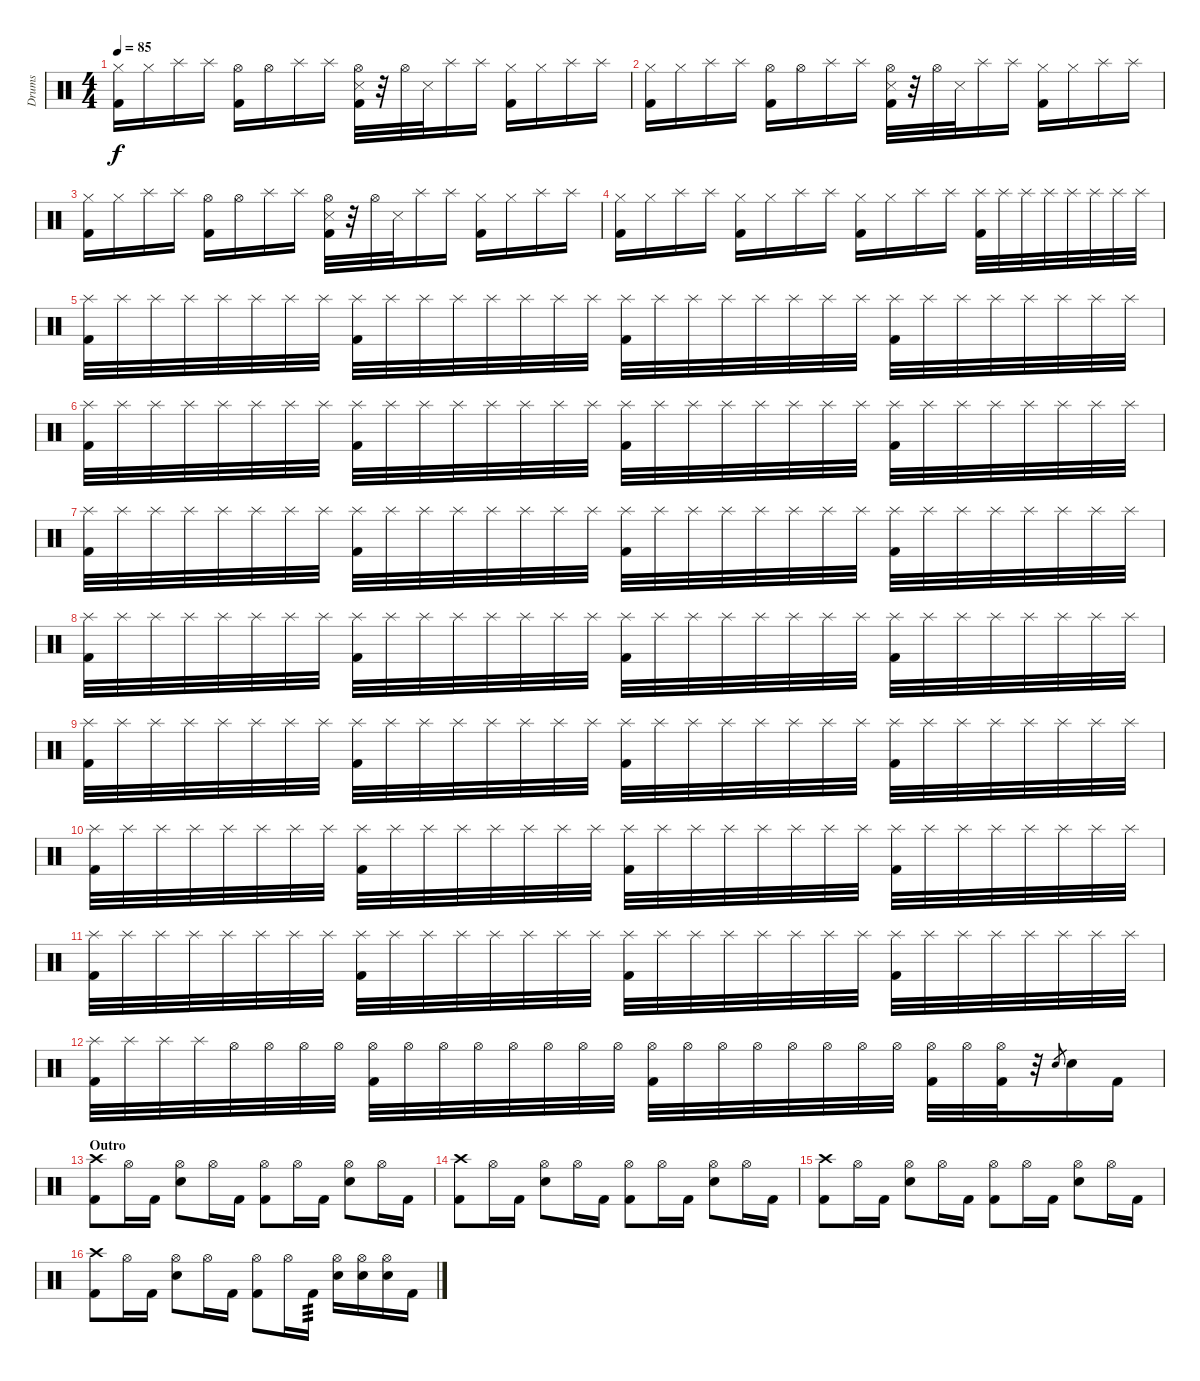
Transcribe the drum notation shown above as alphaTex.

\track ("Drums" "Drums") {instrument percussion}
\staff {score}
\articulation defaults
\ts (4 4)
\tempo 85
\clef neutral
\ks c
("Hi-Hat (closed)" "Kick (hit) 2").16{dy f} "Hi-Hat (closed)".16 "Splash (hit)".16 "Splash (hit)".16 ("Hi-Hat (open)" "Kick (hit) 2").16 "Hi-Hat (open)".16 "Splash (hit)".16 "Splash (hit)".16 ("Hi-Hat (open)" "Snare (side stick) 3" "Kick (hit) 2").32 r.32 "Hi-Hat (open)".32 "Snare (side stick) 3".32 "Splash (hit)".16 "Splash (hit)".16 ("Hi-Hat (closed)" "Kick (hit) 2").16 "Hi-Hat (closed)".16 "Splash (hit)".16 "Splash (hit)".16 |
("Hi-Hat (closed)" "Kick (hit) 2").16 "Hi-Hat (closed)".16 "Splash (hit)".16 "Splash (hit)".16 ("Hi-Hat (open)" "Kick (hit) 2").16 "Hi-Hat (open)".16 "Splash (hit)".16 "Splash (hit)".16 ("Hi-Hat (open)" "Snare (side stick) 3" "Kick (hit) 2").32 r.32 "Hi-Hat (open)".32 "Snare (side stick) 3".32 "Splash (hit)".16 "Splash (hit)".16 ("Hi-Hat (closed)" "Kick (hit) 2").16 "Hi-Hat (closed)".16 "Splash (hit)".16 "Splash (hit)".16 |
("Hi-Hat (closed)" "Kick (hit) 2").16 "Hi-Hat (closed)".16 "Splash (hit)".16 "Splash (hit)".16 ("Hi-Hat (open)" "Kick (hit) 2").16 "Hi-Hat (open)".16 "Splash (hit)".16 "Splash (hit)".16 ("Hi-Hat (open)" "Snare (side stick) 3" "Kick (hit) 2").32 r.32 "Hi-Hat (open)".32 "Snare (side stick) 3".32 "Splash (hit)".16 "Splash (hit)".16 ("Hi-Hat (closed)" "Kick (hit) 2").16 "Hi-Hat (closed)".16 "Splash (hit)".16 "Splash (hit)".16 |
("Hi-Hat (closed)" "Kick (hit) 2").16 "Hi-Hat (closed)".16 "Splash (hit)".16 "Splash (hit)".16 ("Hi-Hat (closed)" "Kick (hit) 2").16 "Hi-Hat (closed)".16 "Splash (hit)".16 "Splash (hit)".16 ("Hi-Hat (closed)" "Kick (hit) 2").16 "Hi-Hat (closed)".16 "Splash (hit)".16 "Splash (hit)".16 ("Splash (hit)" "Kick (hit) 2").32 "Splash (hit)".32 "Splash (hit)".32 "Splash (hit)".32 "Splash (hit)".32 "Splash (hit)".32 "Splash (hit)".32 "Splash (hit)".32 |
("Splash (hit)" "Kick (hit) 2").32 "Splash (hit)".32 "Splash (hit)".32 "Splash (hit)".32 "Splash (hit)".32 "Splash (hit)".32 "Splash (hit)".32 "Splash (hit)".32 ("Splash (hit)" "Kick (hit) 2").32 "Splash (hit)".32 "Splash (hit)".32 "Splash (hit)".32 "Splash (hit)".32 "Splash (hit)".32 "Splash (hit)".32 "Splash (hit)".32 ("Splash (hit)" "Kick (hit) 2").32 "Splash (hit)".32 "Splash (hit)".32 "Splash (hit)".32 "Splash (hit)".32 "Splash (hit)".32 "Splash (hit)".32 "Splash (hit)".32 ("Splash (hit)" "Kick (hit) 2").32 "Splash (hit)".32 "Splash (hit)".32 "Splash (hit)".32 "Splash (hit)".32 "Splash (hit)".32 "Splash (hit)".32 "Splash (hit)".32 |
("Splash (hit)" "Kick (hit) 2").32 "Splash (hit)".32 "Splash (hit)".32 "Splash (hit)".32 "Splash (hit)".32 "Splash (hit)".32 "Splash (hit)".32 "Splash (hit)".32 ("Splash (hit)" "Kick (hit) 2").32 "Splash (hit)".32 "Splash (hit)".32 "Splash (hit)".32 "Splash (hit)".32 "Splash (hit)".32 "Splash (hit)".32 "Splash (hit)".32 ("Splash (hit)" "Kick (hit) 2").32 "Splash (hit)".32 "Splash (hit)".32 "Splash (hit)".32 "Splash (hit)".32 "Splash (hit)".32 "Splash (hit)".32 "Splash (hit)".32 ("Splash (hit)" "Kick (hit) 2").32 "Splash (hit)".32 "Splash (hit)".32 "Splash (hit)".32 "Splash (hit)".32 "Splash (hit)".32 "Splash (hit)".32 "Splash (hit)".32 |
("Splash (hit)" "Kick (hit) 2").32 "Splash (hit)".32 "Splash (hit)".32 "Splash (hit)".32 "Splash (hit)".32 "Splash (hit)".32 "Splash (hit)".32 "Splash (hit)".32 ("Splash (hit)" "Kick (hit) 2").32 "Splash (hit)".32 "Splash (hit)".32 "Splash (hit)".32 "Splash (hit)".32 "Splash (hit)".32 "Splash (hit)".32 "Splash (hit)".32 ("Splash (hit)" "Kick (hit) 2").32 "Splash (hit)".32 "Splash (hit)".32 "Splash (hit)".32 "Splash (hit)".32 "Splash (hit)".32 "Splash (hit)".32 "Splash (hit)".32 ("Splash (hit)" "Kick (hit) 2").32 "Splash (hit)".32 "Splash (hit)".32 "Splash (hit)".32 "Splash (hit)".32 "Splash (hit)".32 "Splash (hit)".32 "Splash (hit)".32 |
("Splash (hit)" "Kick (hit) 2").32 "Splash (hit)".32 "Splash (hit)".32 "Splash (hit)".32 "Splash (hit)".32 "Splash (hit)".32 "Splash (hit)".32 "Splash (hit)".32 ("Splash (hit)" "Kick (hit) 2").32 "Splash (hit)".32 "Splash (hit)".32 "Splash (hit)".32 "Splash (hit)".32 "Splash (hit)".32 "Splash (hit)".32 "Splash (hit)".32 ("Splash (hit)" "Kick (hit) 2").32 "Splash (hit)".32 "Splash (hit)".32 "Splash (hit)".32 "Splash (hit)".32 "Splash (hit)".32 "Splash (hit)".32 "Splash (hit)".32 ("Splash (hit)" "Kick (hit) 2").32 "Splash (hit)".32 "Splash (hit)".32 "Splash (hit)".32 "Splash (hit)".32 "Splash (hit)".32 "Splash (hit)".32 "Splash (hit)".32 |
("Splash (hit)" "Kick (hit) 2").32 "Splash (hit)".32 "Splash (hit)".32 "Splash (hit)".32 "Splash (hit)".32 "Splash (hit)".32 "Splash (hit)".32 "Splash (hit)".32 ("Splash (hit)" "Kick (hit) 2").32 "Splash (hit)".32 "Splash (hit)".32 "Splash (hit)".32 "Splash (hit)".32 "Splash (hit)".32 "Splash (hit)".32 "Splash (hit)".32 ("Splash (hit)" "Kick (hit) 2").32 "Splash (hit)".32 "Splash (hit)".32 "Splash (hit)".32 "Splash (hit)".32 "Splash (hit)".32 "Splash (hit)".32 "Splash (hit)".32 ("Splash (hit)" "Kick (hit) 2").32 "Splash (hit)".32 "Splash (hit)".32 "Splash (hit)".32 "Splash (hit)".32 "Splash (hit)".32 "Splash (hit)".32 "Splash (hit)".32 |
("Splash (hit)" "Kick (hit) 2").32 "Splash (hit)".32 "Splash (hit)".32 "Splash (hit)".32 "Splash (hit)".32 "Splash (hit)".32 "Splash (hit)".32 "Splash (hit)".32 ("Splash (hit)" "Kick (hit) 2").32 "Splash (hit)".32 "Splash (hit)".32 "Splash (hit)".32 "Splash (hit)".32 "Splash (hit)".32 "Splash (hit)".32 "Splash (hit)".32 ("Splash (hit)" "Kick (hit) 2").32 "Splash (hit)".32 "Splash (hit)".32 "Splash (hit)".32 "Splash (hit)".32 "Splash (hit)".32 "Splash (hit)".32 "Splash (hit)".32 ("Splash (hit)" "Kick (hit) 2").32 "Splash (hit)".32 "Splash (hit)".32 "Splash (hit)".32 "Splash (hit)".32 "Splash (hit)".32 "Splash (hit)".32 "Splash (hit)".32 |
("Splash (hit)" "Kick (hit) 2").32 "Splash (hit)".32 "Splash (hit)".32 "Splash (hit)".32 "Splash (hit)".32 "Splash (hit)".32 "Splash (hit)".32 "Splash (hit)".32 ("Splash (hit)" "Kick (hit) 2").32 "Splash (hit)".32 "Splash (hit)".32 "Splash (hit)".32 "Splash (hit)".32 "Splash (hit)".32 "Splash (hit)".32 "Splash (hit)".32 ("Splash (hit)" "Kick (hit) 2").32 "Splash (hit)".32 "Splash (hit)".32 "Splash (hit)".32 "Splash (hit)".32 "Splash (hit)".32 "Splash (hit)".32 "Splash (hit)".32 ("Splash (hit)" "Kick (hit) 2").32 "Splash (hit)".32 "Splash (hit)".32 "Splash (hit)".32 "Splash (hit)".32 "Splash (hit)".32 "Splash (hit)".32 "Splash (hit)".32 |
("Splash (hit)" "Kick (hit) 2").32 "Splash (hit)".32 "Splash (hit)".32 "Splash (hit)".32 "Hi-Hat (open)".32 "Hi-Hat (open)".32 "Hi-Hat (open)".32 "Hi-Hat (open)".32 ("Hi-Hat (open)" "Kick (hit) 2").32 "Hi-Hat (open)".32 "Hi-Hat (open)".32 "Hi-Hat (open)".32 "Hi-Hat (open)".32 "Hi-Hat (open)".32 "Hi-Hat (open)".32 "Hi-Hat (open)".32 ("Hi-Hat (open)" "Kick (hit) 2").32 "Hi-Hat (open)".32 "Hi-Hat (open)".32 "Hi-Hat (open)".32 "Hi-Hat (open)".32 "Hi-Hat (open)".32 "Hi-Hat (open)".32 "Hi-Hat (open)".32 ("Hi-Hat (open)" "Kick (hit) 2").32 "Hi-Hat (open)".32 ("Hi-Hat (open)" "Kick (hit) 2").32 r.32 "Electric Snare (hit)".8{gr} "Electric Snare (hit)".16 "Kick (hit) 2".16 |
\section ("" "Outro")
("Crash high (hit)" "Kick (hit) 2").8 "Hi-Hat (open)".16 "Kick (hit) 2".16 ("Hi-Hat (open)" "Electric Snare (hit)").8 "Hi-Hat (open)".16 "Kick (hit) 2".16 ("Hi-Hat (open)" "Kick (hit) 2").8 "Hi-Hat (open)".16 "Kick (hit) 2".16 ("Hi-Hat (open)" "Electric Snare (hit)").8 "Hi-Hat (open)".16 "Kick (hit) 2".16 |
("Crash high (hit)" "Kick (hit) 2").8 "Hi-Hat (open)".16 "Kick (hit) 2".16 ("Hi-Hat (open)" "Electric Snare (hit)").8 "Hi-Hat (open)".16 "Kick (hit) 2".16 ("Hi-Hat (open)" "Kick (hit) 2").8 "Hi-Hat (open)".16 "Kick (hit) 2".16 ("Hi-Hat (open)" "Electric Snare (hit)").8 "Hi-Hat (open)".16 "Kick (hit) 2".16 |
("Crash high (hit)" "Kick (hit) 2").8 "Hi-Hat (open)".16 "Kick (hit) 2".16 ("Hi-Hat (open)" "Electric Snare (hit)").8 "Hi-Hat (open)".16 "Kick (hit) 2".16 ("Hi-Hat (open)" "Kick (hit) 2").8 "Hi-Hat (open)".16 "Kick (hit) 2".16 ("Hi-Hat (open)" "Electric Snare (hit)").8 "Hi-Hat (open)".16 "Kick (hit) 2".16 |
("Crash high (hit)" "Kick (hit) 2").8 "Hi-Hat (open)".16 "Kick (hit) 2".16 ("Hi-Hat (open)" "Electric Snare (hit)").8 "Hi-Hat (open)".16 "Kick (hit) 2".16 ("Hi-Hat (open)" "Kick (hit) 2").8 "Hi-Hat (open)".16 "Kick (hit) 2".16{tp 3} ("Hi-Hat (open)" "Electric Snare (hit)").16 ("Hi-Hat (open)" "Electric Snare (hit)").16 ("Hi-Hat (open)" "Electric Snare (hit)").16 "Kick (hit) 2".16
